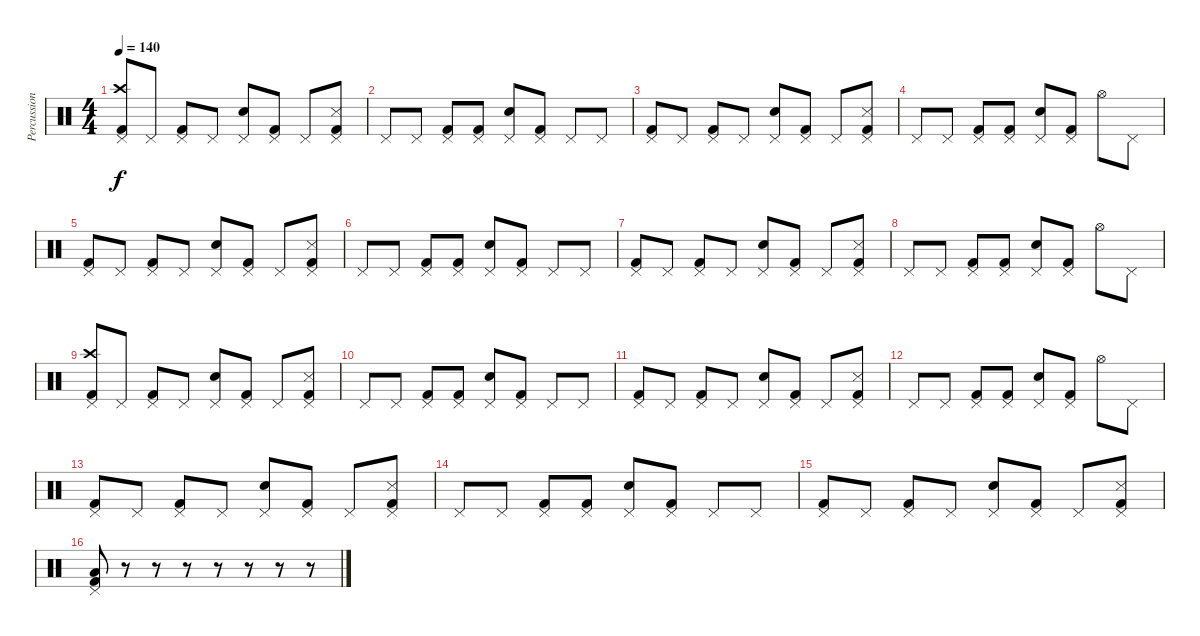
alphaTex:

\track ("Percussion" "Percussion") {instrument percussion}
\staff {score}
\articulation defaults
\ts (4 4)
\tempo 140
\clef neutral
\ks c
("Pedal Hi-Hat (hit)" "Crash high (hit)" "Kick (hit) 2").8{dy f} "Pedal Hi-Hat (hit)".8 ("Pedal Hi-Hat (hit)" "Kick (hit) 2").8 "Pedal Hi-Hat (hit)".8 ("Pedal Hi-Hat (hit)" "Electric Snare (hit)").8 ("Pedal Hi-Hat (hit)" "Kick (hit) 2").8 "Pedal Hi-Hat (hit)".8 ("Snare (side stick) 3" "Pedal Hi-Hat (hit)" "Kick (hit) 2").8 |
"Pedal Hi-Hat (hit)".8 "Pedal Hi-Hat (hit)".8 ("Pedal Hi-Hat (hit)" "Kick (hit) 2").8 ("Pedal Hi-Hat (hit)" "Kick (hit) 2").8 ("Electric Snare (hit)" "Pedal Hi-Hat (hit)").8 ("Pedal Hi-Hat (hit)" "Kick (hit) 2").8 "Pedal Hi-Hat (hit)".8 "Pedal Hi-Hat (hit)".8 |
("Pedal Hi-Hat (hit)" "Kick (hit) 2").8 "Pedal Hi-Hat (hit)".8 ("Pedal Hi-Hat (hit)" "Kick (hit) 2").8 "Pedal Hi-Hat (hit)".8 ("Pedal Hi-Hat (hit)" "Electric Snare (hit)").8 ("Pedal Hi-Hat (hit)" "Kick (hit) 2").8 "Pedal Hi-Hat (hit)".8 ("Snare (side stick) 3" "Pedal Hi-Hat (hit)" "Kick (hit) 2").8 |
"Pedal Hi-Hat (hit)".8 "Pedal Hi-Hat (hit)".8 ("Pedal Hi-Hat (hit)" "Kick (hit) 2").8 ("Pedal Hi-Hat (hit)" "Kick (hit) 2").8 ("Electric Snare (hit)" "Pedal Hi-Hat (hit)").8 ("Pedal Hi-Hat (hit)" "Kick (hit) 2").8 "Hi-Hat (open)".8 "Pedal Hi-Hat (hit)".8 |
("Pedal Hi-Hat (hit)" "Kick (hit) 2").8 "Pedal Hi-Hat (hit)".8 ("Pedal Hi-Hat (hit)" "Kick (hit) 2").8 "Pedal Hi-Hat (hit)".8 ("Pedal Hi-Hat (hit)" "Electric Snare (hit)").8 ("Pedal Hi-Hat (hit)" "Kick (hit) 2").8 "Pedal Hi-Hat (hit)".8 ("Snare (side stick) 3" "Pedal Hi-Hat (hit)" "Kick (hit) 2").8 |
"Pedal Hi-Hat (hit)".8 "Pedal Hi-Hat (hit)".8 ("Pedal Hi-Hat (hit)" "Kick (hit) 2").8 ("Pedal Hi-Hat (hit)" "Kick (hit) 2").8 ("Electric Snare (hit)" "Pedal Hi-Hat (hit)").8 ("Pedal Hi-Hat (hit)" "Kick (hit) 2").8 "Pedal Hi-Hat (hit)".8 "Pedal Hi-Hat (hit)".8 |
("Pedal Hi-Hat (hit)" "Kick (hit) 2").8 "Pedal Hi-Hat (hit)".8 ("Pedal Hi-Hat (hit)" "Kick (hit) 2").8 "Pedal Hi-Hat (hit)".8 ("Pedal Hi-Hat (hit)" "Electric Snare (hit)").8 ("Pedal Hi-Hat (hit)" "Kick (hit) 2").8 "Pedal Hi-Hat (hit)".8 ("Snare (side stick) 3" "Pedal Hi-Hat (hit)" "Kick (hit) 2").8 |
"Pedal Hi-Hat (hit)".8 "Pedal Hi-Hat (hit)".8 ("Pedal Hi-Hat (hit)" "Kick (hit) 2").8 ("Pedal Hi-Hat (hit)" "Kick (hit) 2").8 ("Electric Snare (hit)" "Pedal Hi-Hat (hit)").8 ("Pedal Hi-Hat (hit)" "Kick (hit) 2").8 "Hi-Hat (open)".8 "Pedal Hi-Hat (hit)".8 |
("Pedal Hi-Hat (hit)" "Crash high (hit)" "Kick (hit) 2").8 "Pedal Hi-Hat (hit)".8 ("Pedal Hi-Hat (hit)" "Kick (hit) 2").8 "Pedal Hi-Hat (hit)".8 ("Pedal Hi-Hat (hit)" "Electric Snare (hit)").8 ("Pedal Hi-Hat (hit)" "Kick (hit) 2").8 "Pedal Hi-Hat (hit)".8 ("Snare (side stick) 3" "Pedal Hi-Hat (hit)" "Kick (hit) 2").8 |
"Pedal Hi-Hat (hit)".8 "Pedal Hi-Hat (hit)".8 ("Pedal Hi-Hat (hit)" "Kick (hit) 2").8 ("Pedal Hi-Hat (hit)" "Kick (hit) 2").8 ("Electric Snare (hit)" "Pedal Hi-Hat (hit)").8 ("Pedal Hi-Hat (hit)" "Kick (hit) 2").8 "Pedal Hi-Hat (hit)".8 "Pedal Hi-Hat (hit)".8 |
("Pedal Hi-Hat (hit)" "Kick (hit) 2").8 "Pedal Hi-Hat (hit)".8 ("Pedal Hi-Hat (hit)" "Kick (hit) 2").8 "Pedal Hi-Hat (hit)".8 ("Pedal Hi-Hat (hit)" "Electric Snare (hit)").8 ("Pedal Hi-Hat (hit)" "Kick (hit) 2").8 "Pedal Hi-Hat (hit)".8 ("Snare (side stick) 3" "Pedal Hi-Hat (hit)" "Kick (hit) 2").8 |
"Pedal Hi-Hat (hit)".8 "Pedal Hi-Hat (hit)".8 ("Pedal Hi-Hat (hit)" "Kick (hit) 2").8 ("Pedal Hi-Hat (hit)" "Kick (hit) 2").8 ("Electric Snare (hit)" "Pedal Hi-Hat (hit)").8 ("Pedal Hi-Hat (hit)" "Kick (hit) 2").8 "Hi-Hat (open)".8 "Pedal Hi-Hat (hit)".8 |
("Pedal Hi-Hat (hit)" "Kick (hit) 2").8 "Pedal Hi-Hat (hit)".8 ("Pedal Hi-Hat (hit)" "Kick (hit) 2").8 "Pedal Hi-Hat (hit)".8 ("Pedal Hi-Hat (hit)" "Electric Snare (hit)").8 ("Pedal Hi-Hat (hit)" "Kick (hit) 2").8 "Pedal Hi-Hat (hit)".8 ("Snare (side stick) 3" "Pedal Hi-Hat (hit)" "Kick (hit) 2").8 |
"Pedal Hi-Hat (hit)".8 "Pedal Hi-Hat (hit)".8 ("Pedal Hi-Hat (hit)" "Kick (hit) 2").8 ("Pedal Hi-Hat (hit)" "Kick (hit) 2").8 ("Electric Snare (hit)" "Pedal Hi-Hat (hit)").8 ("Pedal Hi-Hat (hit)" "Kick (hit) 2").8 "Pedal Hi-Hat (hit)".8 "Pedal Hi-Hat (hit)".8 |
("Pedal Hi-Hat (hit)" "Kick (hit) 2").8 "Pedal Hi-Hat (hit)".8 ("Pedal Hi-Hat (hit)" "Kick (hit) 2").8 "Pedal Hi-Hat (hit)".8 ("Pedal Hi-Hat (hit)" "Electric Snare (hit)").8 ("Pedal Hi-Hat (hit)" "Kick (hit) 2").8 "Pedal Hi-Hat (hit)".8 ("Snare (side stick) 3" "Pedal Hi-Hat (hit)" "Kick (hit) 2").8 |
("Low Floor Tom (hit)" "Pedal Hi-Hat (hit)" "Kick (hit) 2").8 r.8 r.8 r.8 r.8 r.8 r.8 r.8
